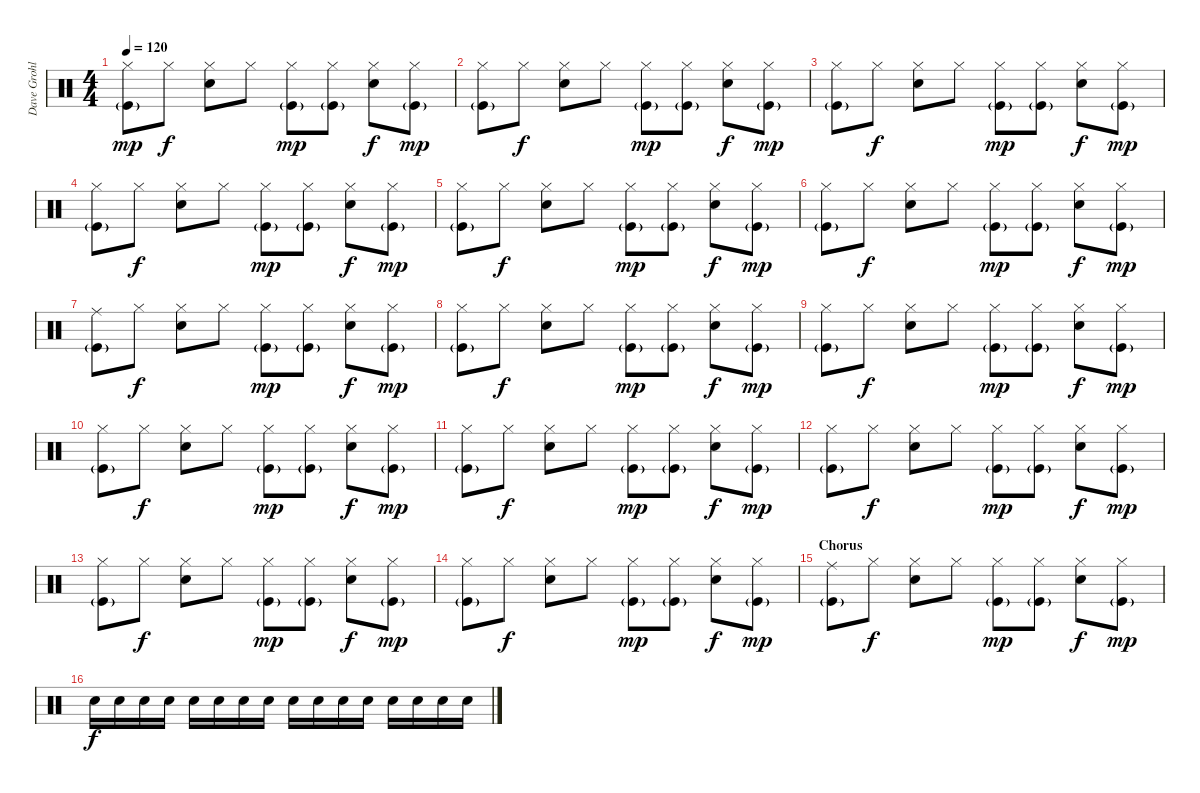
\track ("Dave Grohl" "Dave Grohl") {instrument percussion}
\staff {score}
\articulation defaults
\ts (4 4)
\tempo 120
\clef neutral
\ks c
("Hi-Hat (closed)" "Kick (hit)"{g}).8{dy mp} "Hi-Hat (closed)".8{dy f} ("Hi-Hat (closed)" "Electric Snare (hit)").8 "Hi-Hat (closed)".8 ("Hi-Hat (closed)" "Kick (hit)"{g}).8{dy mp} ("Hi-Hat (closed)" "Kick (hit)"{g}).8 ("Hi-Hat (closed)" "Electric Snare (hit)").8{dy f} ("Hi-Hat (closed)" "Kick (hit)"{g}).8{dy mp} |
("Hi-Hat (closed)" "Kick (hit)"{g}).8 "Hi-Hat (closed)".8{dy f} ("Hi-Hat (closed)" "Electric Snare (hit)").8 "Hi-Hat (closed)".8 ("Hi-Hat (closed)" "Kick (hit)"{g}).8{dy mp} ("Hi-Hat (closed)" "Kick (hit)"{g}).8 ("Hi-Hat (closed)" "Electric Snare (hit)").8{dy f} ("Hi-Hat (closed)" "Kick (hit)"{g}).8{dy mp} |
("Hi-Hat (closed)" "Kick (hit)"{g}).8 "Hi-Hat (closed)".8{dy f} ("Hi-Hat (closed)" "Electric Snare (hit)").8 "Hi-Hat (closed)".8 ("Hi-Hat (closed)" "Kick (hit)"{g}).8{dy mp} ("Hi-Hat (closed)" "Kick (hit)"{g}).8 ("Hi-Hat (closed)" "Electric Snare (hit)").8{dy f} ("Hi-Hat (closed)" "Kick (hit)"{g}).8{dy mp} |
("Hi-Hat (closed)" "Kick (hit)"{g}).8 "Hi-Hat (closed)".8{dy f} ("Hi-Hat (closed)" "Electric Snare (hit)").8 "Hi-Hat (closed)".8 ("Hi-Hat (closed)" "Kick (hit)"{g}).8{dy mp} ("Hi-Hat (closed)" "Kick (hit)"{g}).8 ("Hi-Hat (closed)" "Electric Snare (hit)").8{dy f} ("Hi-Hat (closed)" "Kick (hit)"{g}).8{dy mp} |
("Hi-Hat (closed)" "Kick (hit)"{g}).8 "Hi-Hat (closed)".8{dy f} ("Hi-Hat (closed)" "Electric Snare (hit)").8 "Hi-Hat (closed)".8 ("Hi-Hat (closed)" "Kick (hit)"{g}).8{dy mp} ("Hi-Hat (closed)" "Kick (hit)"{g}).8 ("Hi-Hat (closed)" "Electric Snare (hit)").8{dy f} ("Hi-Hat (closed)" "Kick (hit)"{g}).8{dy mp} |
("Hi-Hat (closed)" "Kick (hit)"{g}).8 "Hi-Hat (closed)".8{dy f} ("Hi-Hat (closed)" "Electric Snare (hit)").8 "Hi-Hat (closed)".8 ("Hi-Hat (closed)" "Kick (hit)"{g}).8{dy mp} ("Hi-Hat (closed)" "Kick (hit)"{g}).8 ("Hi-Hat (closed)" "Electric Snare (hit)").8{dy f} ("Hi-Hat (closed)" "Kick (hit)"{g}).8{dy mp} |
("Ride (middle)" "Kick (hit)"{g}).8 "Hi-Hat (closed)".8{dy f} ("Hi-Hat (closed)" "Electric Snare (hit)").8 "Hi-Hat (closed)".8 ("Hi-Hat (closed)" "Kick (hit)"{g}).8{dy mp} ("Hi-Hat (closed)" "Kick (hit)"{g}).8 ("Hi-Hat (closed)" "Electric Snare (hit)").8{dy f} ("Hi-Hat (closed)" "Kick (hit)"{g}).8{dy mp} |
("Hi-Hat (closed)" "Kick (hit)"{g}).8 "Hi-Hat (closed)".8{dy f} ("Hi-Hat (closed)" "Electric Snare (hit)").8 "Hi-Hat (closed)".8 ("Hi-Hat (closed)" "Kick (hit)"{g}).8{dy mp} ("Hi-Hat (closed)" "Kick (hit)"{g}).8 ("Hi-Hat (closed)" "Electric Snare (hit)").8{dy f} ("Hi-Hat (closed)" "Kick (hit)"{g}).8{dy mp} |
("Hi-Hat (closed)" "Kick (hit)"{g}).8 "Hi-Hat (closed)".8{dy f} ("Hi-Hat (closed)" "Electric Snare (hit)").8 "Hi-Hat (closed)".8 ("Hi-Hat (closed)" "Kick (hit)"{g}).8{dy mp} ("Hi-Hat (closed)" "Kick (hit)"{g}).8 ("Hi-Hat (closed)" "Electric Snare (hit)").8{dy f} ("Hi-Hat (closed)" "Kick (hit)"{g}).8{dy mp} |
("Hi-Hat (closed)" "Kick (hit)"{g}).8 "Hi-Hat (closed)".8{dy f} ("Hi-Hat (closed)" "Electric Snare (hit)").8 "Hi-Hat (closed)".8 ("Hi-Hat (closed)" "Kick (hit)"{g}).8{dy mp} ("Hi-Hat (closed)" "Kick (hit)"{g}).8 ("Hi-Hat (closed)" "Electric Snare (hit)").8{dy f} ("Hi-Hat (closed)" "Kick (hit)"{g}).8{dy mp} |
("Hi-Hat (closed)" "Kick (hit)"{g}).8 "Hi-Hat (closed)".8{dy f} ("Hi-Hat (closed)" "Electric Snare (hit)").8 "Hi-Hat (closed)".8 ("Hi-Hat (closed)" "Kick (hit)"{g}).8{dy mp} ("Hi-Hat (closed)" "Kick (hit)"{g}).8 ("Hi-Hat (closed)" "Electric Snare (hit)").8{dy f} ("Hi-Hat (closed)" "Kick (hit)"{g}).8{dy mp} |
("Hi-Hat (closed)" "Kick (hit)"{g}).8 "Hi-Hat (closed)".8{dy f} ("Hi-Hat (closed)" "Electric Snare (hit)").8 "Hi-Hat (closed)".8 ("Hi-Hat (closed)" "Kick (hit)"{g}).8{dy mp} ("Hi-Hat (closed)" "Kick (hit)"{g}).8 ("Hi-Hat (closed)" "Electric Snare (hit)").8{dy f} ("Hi-Hat (closed)" "Kick (hit)"{g}).8{dy mp} |
("Hi-Hat (closed)" "Kick (hit)"{g}).8 "Hi-Hat (closed)".8{dy f} ("Hi-Hat (closed)" "Electric Snare (hit)").8 "Hi-Hat (closed)".8 ("Hi-Hat (closed)" "Kick (hit)"{g}).8{dy mp} ("Hi-Hat (closed)" "Kick (hit)"{g}).8 ("Hi-Hat (closed)" "Electric Snare (hit)").8{dy f} ("Hi-Hat (closed)" "Kick (hit)"{g}).8{dy mp} |
("Hi-Hat (closed)" "Kick (hit)"{g}).8 "Hi-Hat (closed)".8{dy f} ("Hi-Hat (closed)" "Electric Snare (hit)").8 "Hi-Hat (closed)".8 ("Hi-Hat (closed)" "Kick (hit)"{g}).8{dy mp} ("Hi-Hat (closed)" "Kick (hit)"{g}).8 ("Hi-Hat (closed)" "Electric Snare (hit)").8{dy f} ("Hi-Hat (closed)" "Kick (hit)"{g}).8{dy mp} |
\section ("" "Chorus")
("Ride (middle)" "Kick (hit)"{g}).8 "Hi-Hat (closed)".8{dy f} ("Hi-Hat (closed)" "Electric Snare (hit)").8 "Hi-Hat (closed)".8 ("Hi-Hat (closed)" "Kick (hit)"{g}).8{dy mp} ("Hi-Hat (closed)" "Kick (hit)"{g}).8 ("Hi-Hat (closed)" "Electric Snare (hit)").8{dy f} ("Hi-Hat (closed)" "Kick (hit)"{g}).8{dy mp} |
"Electric Snare (hit)".16{dy f} "Electric Snare (hit)".16 "Electric Snare (hit)".16 "Electric Snare (hit)".16 "Electric Snare (hit)".16 "Electric Snare (hit)".16 "Electric Snare (hit)".16 "Electric Snare (hit)".16 "Electric Snare (hit)".16 "Electric Snare (hit)".16 "Electric Snare (hit)".16 "Electric Snare (hit)".16 "Electric Snare (hit)".16 "Electric Snare (hit)".16 "Electric Snare (hit)".16 "Electric Snare (hit)".16
